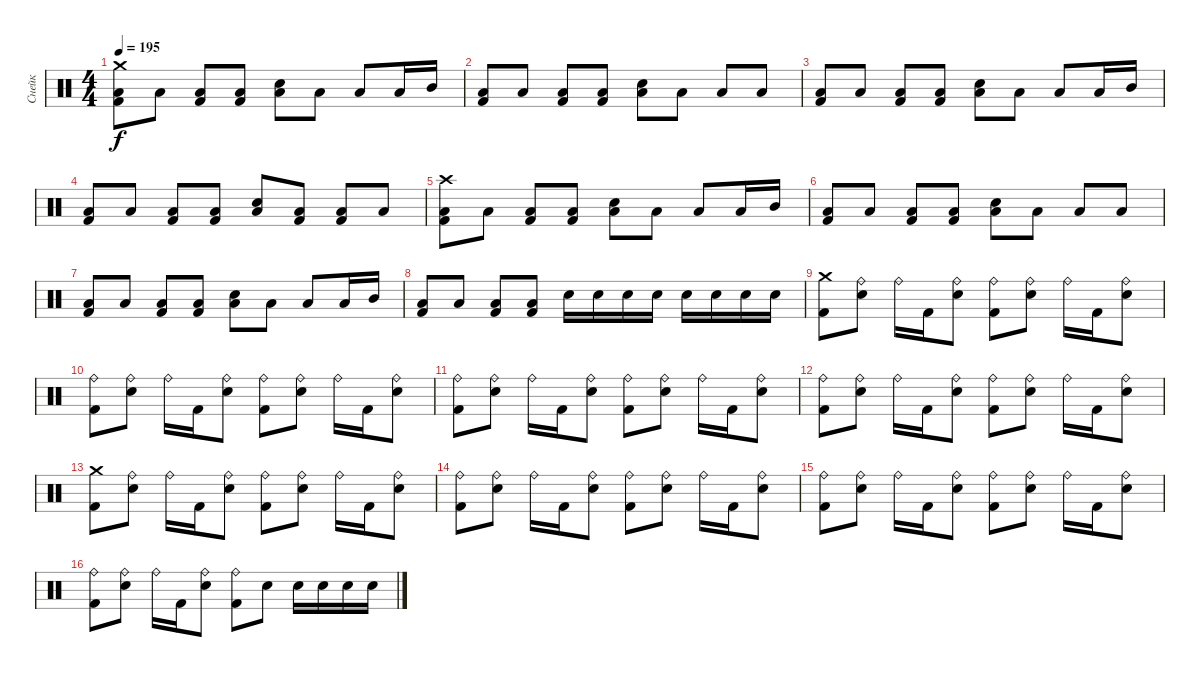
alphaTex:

\track ("Снейк" "Снейк") {instrument percussion}
\staff {score}
\articulation defaults
\ts (4 4)
\tempo 195
\clef neutral
\ks c
("Crash medium (hit)" "Kick (hit) 2" "Low Floor Tom (hit)").8{dy f} "Low Floor Tom (hit)".8 ("Kick (hit) 2" "Low Floor Tom (hit)").8 ("Kick (hit) 2" "Low Floor Tom (hit)").8 ("Electric Snare (hit)" "Low Floor Tom (hit)").8 "Low Floor Tom (hit)".8 "Low Floor Tom (hit)".8 "Low Floor Tom (hit)".16 "Mid Tom (hit)".16 |
("Kick (hit) 2" "Low Floor Tom (hit)").8 "Low Floor Tom (hit)".8 ("Kick (hit) 2" "Low Floor Tom (hit)").8 ("Kick (hit) 2" "Low Floor Tom (hit)").8 ("Electric Snare (hit)" "Low Floor Tom (hit)").8 "Low Floor Tom (hit)".8 "Low Floor Tom (hit)".8 "Low Floor Tom (hit)".8 |
("Kick (hit) 2" "Low Floor Tom (hit)").8 "Low Floor Tom (hit)".8 ("Kick (hit) 2" "Low Floor Tom (hit)").8 ("Kick (hit) 2" "Low Floor Tom (hit)").8 ("Electric Snare (hit)" "Low Floor Tom (hit)").8 "Low Floor Tom (hit)".8 "Low Floor Tom (hit)".8 "Low Floor Tom (hit)".16 "Mid Tom (hit)".16 |
("Kick (hit) 2" "Low Floor Tom (hit)").8 "Low Floor Tom (hit)".8 ("Kick (hit) 2" "Low Floor Tom (hit)").8 ("Kick (hit) 2" "Low Floor Tom (hit)").8 ("Electric Snare (hit)" "Low Floor Tom (hit)").8 ("Kick (hit) 2" "Low Floor Tom (hit)").8 ("Kick (hit) 2" "Low Floor Tom (hit)").8 "Low Floor Tom (hit)".8 |
("Kick (hit) 2" "Low Floor Tom (hit)" "Crash high (hit)").8 "Low Floor Tom (hit)".8 ("Kick (hit) 2" "Low Floor Tom (hit)").8 ("Kick (hit) 2" "Low Floor Tom (hit)").8 ("Electric Snare (hit)" "Low Floor Tom (hit)").8 "Low Floor Tom (hit)".8 "Low Floor Tom (hit)".8 "Low Floor Tom (hit)".16 "Mid Tom (hit)".16 |
("Kick (hit) 2" "Low Floor Tom (hit)").8 "Low Floor Tom (hit)".8 ("Kick (hit) 2" "Low Floor Tom (hit)").8 ("Kick (hit) 2" "Low Floor Tom (hit)").8 ("Electric Snare (hit)" "Low Floor Tom (hit)").8 "Low Floor Tom (hit)".8 "Low Floor Tom (hit)".8 "Low Floor Tom (hit)".8 |
("Kick (hit) 2" "Low Floor Tom (hit)").8 "Low Floor Tom (hit)".8 ("Kick (hit) 2" "Low Floor Tom (hit)").8 ("Kick (hit) 2" "Low Floor Tom (hit)").8 ("Electric Snare (hit)" "Low Floor Tom (hit)").8 "Low Floor Tom (hit)".8 "Low Floor Tom (hit)".8 "Low Floor Tom (hit)".16 "Mid Tom (hit)".16 |
("Kick (hit) 2" "Low Floor Tom (hit)").8 "Low Floor Tom (hit)".8 ("Kick (hit) 2" "Low Floor Tom (hit)").8 ("Kick (hit) 2" "Low Floor Tom (hit)").8 "Electric Snare (hit)".16 "Electric Snare (hit)".16 "Electric Snare (hit)".16 "Electric Snare (hit)".16 "Electric Snare (hit)".16 "Electric Snare (hit)".16 "Electric Snare (hit)".16 "Electric Snare (hit)".16 |
("Kick (hit) 2" "Crash medium (hit)").8 ("Electric Snare (hit)" "Ride (bell)").8 "Ride (bell)".16 "Kick (hit) 2".16 ("Electric Snare (hit)" "Ride (bell)").8 ("Kick (hit) 2" "Ride (bell)").8 ("Electric Snare (hit)" "Ride (bell)").8 "Ride (bell)".16 "Kick (hit) 2".16 ("Electric Snare (hit)" "Ride (bell)").8 |
("Kick (hit) 2" "Ride (bell)").8 ("Electric Snare (hit)" "Ride (bell)").8 "Ride (bell)".16 "Kick (hit) 2".16 ("Electric Snare (hit)" "Ride (bell)").8 ("Kick (hit) 2" "Ride (bell)").8 ("Electric Snare (hit)" "Ride (bell)").8 "Ride (bell)".16 "Kick (hit) 2".16 ("Electric Snare (hit)" "Ride (bell)").8 |
("Kick (hit) 2" "Ride (bell)").8 ("Electric Snare (hit)" "Ride (bell)").8 "Ride (bell)".16 "Kick (hit) 2".16 ("Electric Snare (hit)" "Ride (bell)").8 ("Kick (hit) 2" "Ride (bell)").8 ("Electric Snare (hit)" "Ride (bell)").8 "Ride (bell)".16 "Kick (hit) 2".16 ("Electric Snare (hit)" "Ride (bell)").8 |
("Kick (hit) 2" "Ride (bell)").8 ("Electric Snare (hit)" "Ride (bell)").8 "Ride (bell)".16 "Kick (hit) 2".16 ("Electric Snare (hit)" "Ride (bell)").8 ("Kick (hit) 2" "Ride (bell)").8 ("Electric Snare (hit)" "Ride (bell)").8 "Ride (bell)".16 "Kick (hit) 2".16 ("Electric Snare (hit)" "Ride (bell)").8 |
("Kick (hit) 2" "Crash medium (hit)").8 ("Electric Snare (hit)" "Ride (bell)").8 "Ride (bell)".16 "Kick (hit) 2".16 ("Electric Snare (hit)" "Ride (bell)").8 ("Kick (hit) 2" "Ride (bell)").8 ("Electric Snare (hit)" "Ride (bell)").8 "Ride (bell)".16 "Kick (hit) 2".16 ("Electric Snare (hit)" "Ride (bell)").8 |
("Kick (hit) 2" "Ride (bell)").8 ("Electric Snare (hit)" "Ride (bell)").8 "Ride (bell)".16 "Kick (hit) 2".16 ("Electric Snare (hit)" "Ride (bell)").8 ("Kick (hit) 2" "Ride (bell)").8 ("Electric Snare (hit)" "Ride (bell)").8 "Ride (bell)".16 "Kick (hit) 2".16 ("Electric Snare (hit)" "Ride (bell)").8 |
("Kick (hit) 2" "Ride (bell)").8 ("Electric Snare (hit)" "Ride (bell)").8 "Ride (bell)".16 "Kick (hit) 2".16 ("Electric Snare (hit)" "Ride (bell)").8 ("Kick (hit) 2" "Ride (bell)").8 ("Electric Snare (hit)" "Ride (bell)").8 "Ride (bell)".16 "Kick (hit) 2".16 ("Electric Snare (hit)" "Ride (bell)").8 |
("Kick (hit) 2" "Ride (bell)").8 ("Electric Snare (hit)" "Ride (bell)").8 "Ride (bell)".16 "Kick (hit) 2".16 ("Electric Snare (hit)" "Ride (bell)").8 ("Kick (hit) 2" "Ride (bell)").8 "Electric Snare (hit)".8 "Electric Snare (hit)".16 "Electric Snare (hit)".16 "Electric Snare (hit)".16 "Electric Snare (hit)".16
